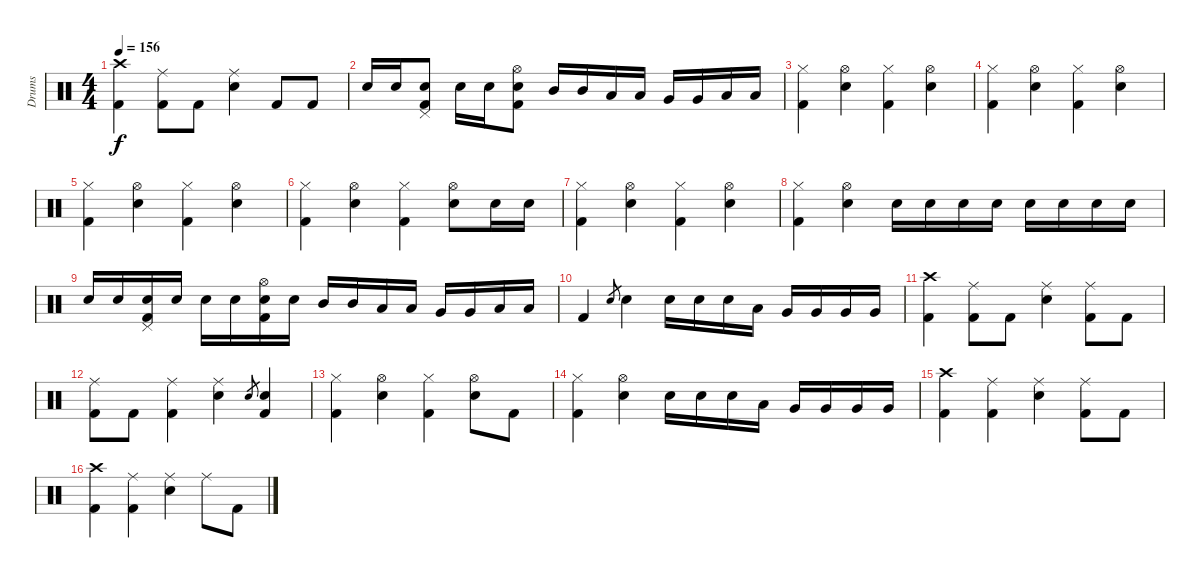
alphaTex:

\track ("Drums" "Drums") {instrument percussion}
\staff {score}
\articulation defaults
\ts (4 4)
\tempo 156
\clef neutral
\ks c
("Crash high (hit)" "Kick (hit) 2").4{dy f} ("Ride (middle)" "Kick (hit) 2").8 "Kick (hit) 2".8 ("Ride (middle)" "Electric Snare (hit)").4 "Kick (hit) 2".8 "Kick (hit) 2".8 |
"Electric Snare (hit)".16 "Electric Snare (hit)".16 ("Pedal Hi-Hat (hit)" "Electric Snare (hit)" "Kick (hit) 2").8 "Electric Snare (hit)".16 "Electric Snare (hit)".16 ("Hi-Hat (open)" "Electric Snare (hit)" "Kick (hit) 2").8 "Mid Tom (hit)".16 "Mid Tom (hit)".16 "Low Tom (hit)".16 "Low Tom (hit)".16 "Very Low Tom (hit)".16 "Very Low Tom (hit)".16 "Low Floor Tom (hit)".16 "Low Floor Tom (hit)".16 |
("Hi-Hat (closed)" "Kick (hit) 2").4 ("Hi-Hat (open)" "Electric Snare (hit)").4 ("Hi-Hat (closed)" "Kick (hit) 2").4 ("Hi-Hat (open)" "Electric Snare (hit)").4 |
("Hi-Hat (closed)" "Kick (hit) 2").4 ("Hi-Hat (open)" "Electric Snare (hit)").4 ("Hi-Hat (closed)" "Kick (hit) 2").4 ("Hi-Hat (open)" "Electric Snare (hit)").4 |
("Hi-Hat (closed)" "Kick (hit) 2").4 ("Hi-Hat (open)" "Electric Snare (hit)").4 ("Hi-Hat (closed)" "Kick (hit) 2").4 ("Hi-Hat (open)" "Electric Snare (hit)").4 |
("Hi-Hat (closed)" "Kick (hit) 2").4 ("Hi-Hat (open)" "Electric Snare (hit)").4 ("Hi-Hat (closed)" "Kick (hit) 2").4 ("Hi-Hat (open)" "Electric Snare (hit)").8 "Electric Snare (hit)".16 "Electric Snare (hit)".16 |
("Hi-Hat (closed)" "Kick (hit) 2").4 ("Hi-Hat (open)" "Electric Snare (hit)").4 ("Hi-Hat (closed)" "Kick (hit) 2").4 ("Hi-Hat (open)" "Electric Snare (hit)").4 |
("Hi-Hat (closed)" "Kick (hit) 2").4 ("Hi-Hat (open)" "Electric Snare (hit)").4 "Electric Snare (hit)".16 "Electric Snare (hit)".16 "Electric Snare (hit)".16 "Electric Snare (hit)".16 "Electric Snare (hit)".16 "Electric Snare (hit)".16 "Electric Snare (hit)".16 "Electric Snare (hit)".16 |
"Electric Snare (hit)".16 "Electric Snare (hit)".16 ("Pedal Hi-Hat (hit)" "Electric Snare (hit)" "Kick (hit) 2").16 "Electric Snare (hit)".16 "Electric Snare (hit)".16 "Electric Snare (hit)".16 ("Hi-Hat (open)" "Electric Snare (hit)" "Kick (hit) 2").16 "Electric Snare (hit)".16 "Mid Tom (hit)".16 "Mid Tom (hit)".16 "Low Tom (hit)".16 "Low Tom (hit)".16 "Very Low Tom (hit)".16 "Very Low Tom (hit)".16 "Low Floor Tom (hit)".16 "Low Floor Tom (hit)".16 |
"Kick (hit) 2".4 "Electric Snare (hit)".8{gr} "Electric Snare (hit)".4 "Electric Snare (hit)".16 "Electric Snare (hit)".16 "Electric Snare (hit)".16 "Low Tom (hit)".16 "Very Low Tom (hit)".16 "Very Low Tom (hit)".16 "Very Low Tom (hit)".16 "Very Low Tom (hit)".16 |
("Crash high (hit)" "Kick (hit) 2").4 ("Ride (middle)" "Kick (hit) 2").8 "Kick (hit) 2".8 ("Ride (middle)" "Electric Snare (hit)").4 ("Ride (middle)" "Kick (hit) 2").8 "Kick (hit) 2".8 |
("Ride (middle)" "Kick (hit) 2").8 "Kick (hit) 2".8 ("Ride (middle)" "Kick (hit) 2").4 ("Ride (middle)" "Electric Snare (hit)").4 "Electric Snare (hit)".8{gr} ("Electric Snare (hit)" "Kick (hit) 2").4 |
("Hi-Hat (closed)" "Kick (hit) 2").4 ("Hi-Hat (open)" "Electric Snare (hit)").4 ("Hi-Hat (closed)" "Kick (hit) 2").4 ("Hi-Hat (open)" "Electric Snare (hit)").8 "Kick (hit) 2".8 |
("Hi-Hat (closed)" "Kick (hit) 2").4 ("Hi-Hat (open)" "Electric Snare (hit)").4 "Electric Snare (hit)".16 "Electric Snare (hit)".16 "Electric Snare (hit)".16 "Low Tom (hit)".16 "Very Low Tom (hit)".16 "Very Low Tom (hit)".16 "Very Low Tom (hit)".16 "Very Low Tom (hit)".16 |
("Crash high (hit)" "Kick (hit) 2").4 ("Ride (middle)" "Kick (hit) 2").4 ("Ride (middle)" "Electric Snare (hit)").4 ("Ride (middle)" "Kick (hit) 2").8 "Kick (hit) 2".8 |
("Crash high (hit)" "Kick (hit) 2").4 ("Ride (middle)" "Kick (hit) 2").4 ("Ride (middle)" "Electric Snare (hit)").4 "Ride (middle)".8 "Kick (hit) 2".8
